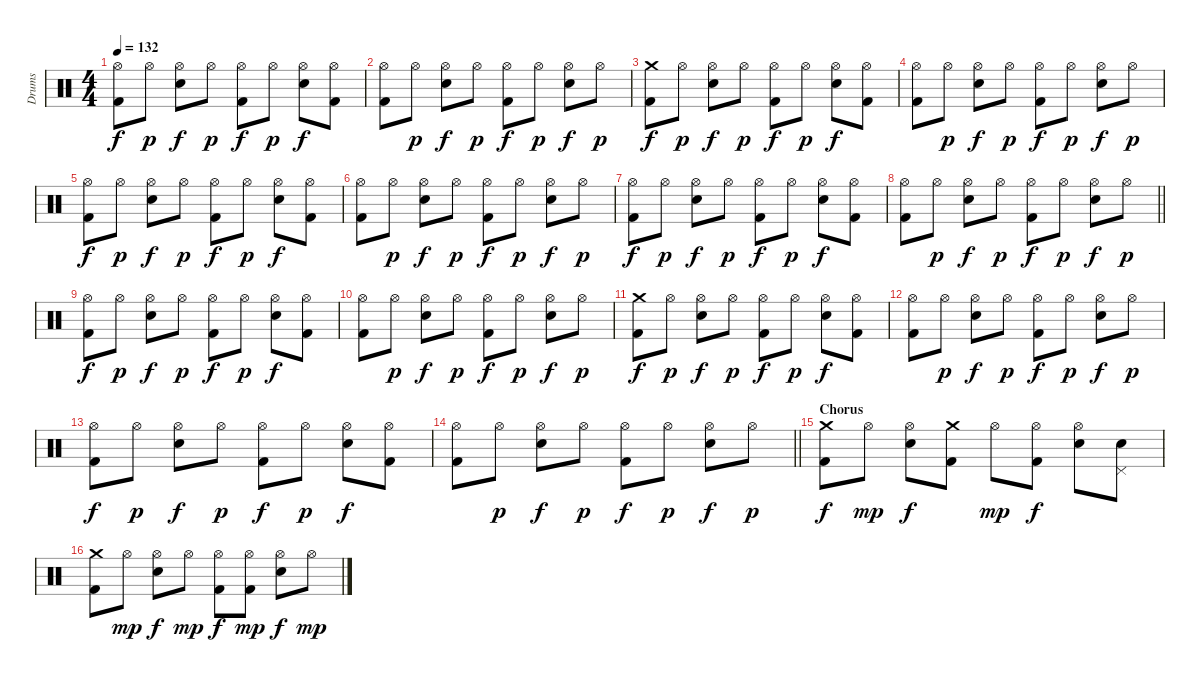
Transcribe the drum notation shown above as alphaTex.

\track ("Drums" "Drums") {instrument percussion}
\staff {score}
\articulation defaults
\ts (4 4)
\tempo 132
\clef neutral
\ks c
("Hi-Hat (open)" "Kick (hit) 2").8{dy f} "Hi-Hat (open)".8{dy p} ("Hi-Hat (open)" "Snare (hit) 2").8{dy f} "Hi-Hat (open)".8{dy p} ("Hi-Hat (open)" "Kick (hit) 2").8{dy f} "Hi-Hat (open)".8{dy p} ("Hi-Hat (open)" "Snare (hit) 2").8{dy f} ("Hi-Hat (open)" "Kick (hit) 2").8 |
("Hi-Hat (open)" "Kick (hit) 2").8 "Hi-Hat (open)".8{dy p} ("Hi-Hat (open)" "Snare (hit) 2").8{dy f} "Hi-Hat (open)".8{dy p} ("Hi-Hat (open)" "Kick (hit) 2").8{dy f} "Hi-Hat (open)".8{dy p} ("Hi-Hat (open)" "Snare (hit) 2").8{dy f} "Hi-Hat (open)".8{dy p} |
("Crash medium (hit)" "Kick (hit) 2").8{dy f} "Hi-Hat (open)".8{dy p} ("Hi-Hat (open)" "Snare (hit) 2").8{dy f} "Hi-Hat (open)".8{dy p} ("Hi-Hat (open)" "Kick (hit) 2").8{dy f} "Hi-Hat (open)".8{dy p} ("Hi-Hat (open)" "Snare (hit) 2").8{dy f} ("Hi-Hat (open)" "Kick (hit) 2").8 |
("Hi-Hat (open)" "Kick (hit) 2").8 "Hi-Hat (open)".8{dy p} ("Hi-Hat (open)" "Snare (hit) 2").8{dy f} "Hi-Hat (open)".8{dy p} ("Hi-Hat (open)" "Kick (hit) 2").8{dy f} "Hi-Hat (open)".8{dy p} ("Hi-Hat (open)" "Snare (hit) 2").8{dy f} "Hi-Hat (open)".8{dy p} |
("Hi-Hat (open)" "Kick (hit) 2").8{dy f} "Hi-Hat (open)".8{dy p} ("Hi-Hat (open)" "Snare (hit) 2").8{dy f} "Hi-Hat (open)".8{dy p} ("Hi-Hat (open)" "Kick (hit) 2").8{dy f} "Hi-Hat (open)".8{dy p} ("Hi-Hat (open)" "Snare (hit) 2").8{dy f} ("Hi-Hat (open)" "Kick (hit) 2").8 |
("Hi-Hat (open)" "Kick (hit) 2").8 "Hi-Hat (open)".8{dy p} ("Hi-Hat (open)" "Snare (hit) 2").8{dy f} "Hi-Hat (open)".8{dy p} ("Hi-Hat (open)" "Kick (hit) 2").8{dy f} "Hi-Hat (open)".8{dy p} ("Hi-Hat (open)" "Snare (hit) 2").8{dy f} "Hi-Hat (open)".8{dy p} |
("Hi-Hat (open)" "Kick (hit) 2").8{dy f} "Hi-Hat (open)".8{dy p} ("Hi-Hat (open)" "Snare (hit) 2").8{dy f} "Hi-Hat (open)".8{dy p} ("Hi-Hat (open)" "Kick (hit) 2").8{dy f} "Hi-Hat (open)".8{dy p} ("Hi-Hat (open)" "Snare (hit) 2").8{dy f} ("Hi-Hat (open)" "Kick (hit) 2").8 |
\barLineRight lightlight
("Hi-Hat (open)" "Kick (hit) 2").8 "Hi-Hat (open)".8{dy p} ("Hi-Hat (open)" "Snare (hit) 2").8{dy f} "Hi-Hat (open)".8{dy p} ("Hi-Hat (open)" "Kick (hit) 2").8{dy f} "Hi-Hat (open)".8{dy p} ("Hi-Hat (open)" "Snare (hit) 2").8{dy f} "Hi-Hat (open)".8{dy p} |
("Hi-Hat (open)" "Kick (hit) 2").8{dy f} "Hi-Hat (open)".8{dy p} ("Hi-Hat (open)" "Snare (hit) 2").8{dy f} "Hi-Hat (open)".8{dy p} ("Hi-Hat (open)" "Kick (hit) 2").8{dy f} "Hi-Hat (open)".8{dy p} ("Hi-Hat (open)" "Snare (hit) 2").8{dy f} ("Hi-Hat (open)" "Kick (hit) 2").8 |
("Hi-Hat (open)" "Kick (hit) 2").8 "Hi-Hat (open)".8{dy p} ("Hi-Hat (open)" "Snare (hit) 2").8{dy f} "Hi-Hat (open)".8{dy p} ("Hi-Hat (open)" "Kick (hit) 2").8{dy f} "Hi-Hat (open)".8{dy p} ("Hi-Hat (open)" "Snare (hit) 2").8{dy f} "Hi-Hat (open)".8{dy p} |
("Crash medium (hit)" "Kick (hit) 2").8{dy f} "Hi-Hat (open)".8{dy p} ("Hi-Hat (open)" "Snare (hit) 2").8{dy f} "Hi-Hat (open)".8{dy p} ("Hi-Hat (open)" "Kick (hit) 2").8{dy f} "Hi-Hat (open)".8{dy p} ("Hi-Hat (open)" "Snare (hit) 2").8{dy f} ("Hi-Hat (open)" "Kick (hit) 2").8 |
("Hi-Hat (open)" "Kick (hit) 2").8 "Hi-Hat (open)".8{dy p} ("Hi-Hat (open)" "Snare (hit) 2").8{dy f} "Hi-Hat (open)".8{dy p} ("Hi-Hat (open)" "Kick (hit) 2").8{dy f} "Hi-Hat (open)".8{dy p} ("Hi-Hat (open)" "Snare (hit) 2").8{dy f} "Hi-Hat (open)".8{dy p} |
("Hi-Hat (open)" "Kick (hit) 2").8{dy f} "Hi-Hat (open)".8{dy p} ("Hi-Hat (open)" "Snare (hit) 2").8{dy f} "Hi-Hat (open)".8{dy p} ("Hi-Hat (open)" "Kick (hit) 2").8{dy f} "Hi-Hat (open)".8{dy p} ("Hi-Hat (open)" "Snare (hit) 2").8{dy f} ("Hi-Hat (open)" "Kick (hit) 2").8 |
\barLineRight lightlight
("Hi-Hat (open)" "Kick (hit) 2").8 "Hi-Hat (open)".8{dy p} ("Hi-Hat (open)" "Snare (hit) 2").8{dy f} "Hi-Hat (open)".8{dy p} ("Hi-Hat (open)" "Kick (hit) 2").8{dy f} "Hi-Hat (open)".8{dy p} ("Hi-Hat (open)" "Snare (hit) 2").8{dy f} "Hi-Hat (open)".8{dy p} |
\section ("" "Chorus")
("Crash medium (hit)" "Kick (hit) 2").8{dy f} "Hi-Hat (open)".8{dy mp} ("Hi-Hat (open)" "Snare (hit) 2").8{dy f} ("Crash medium (hit)" "Kick (hit) 2").8 "Hi-Hat (open)".8{dy mp} ("Hi-Hat (open)" "Kick (hit) 2").8{dy f} ("Hi-Hat (open)" "Snare (hit) 2").8 ("Pedal Hi-Hat (hit)" "Snare (hit) 2").8 |
("Crash medium (hit)" "Kick (hit) 2").8 "Hi-Hat (open)".8{dy mp} ("Hi-Hat (open)" "Snare (hit) 2").8{dy f} "Hi-Hat (open)".8{dy mp} ("Hi-Hat (open)" "Kick (hit) 2").8{dy f} ("Hi-Hat (open)" "Kick (hit) 2").8{dy mp} ("Hi-Hat (open)" "Snare (hit) 2").8{dy f} "Hi-Hat (open)".8{dy mp}
